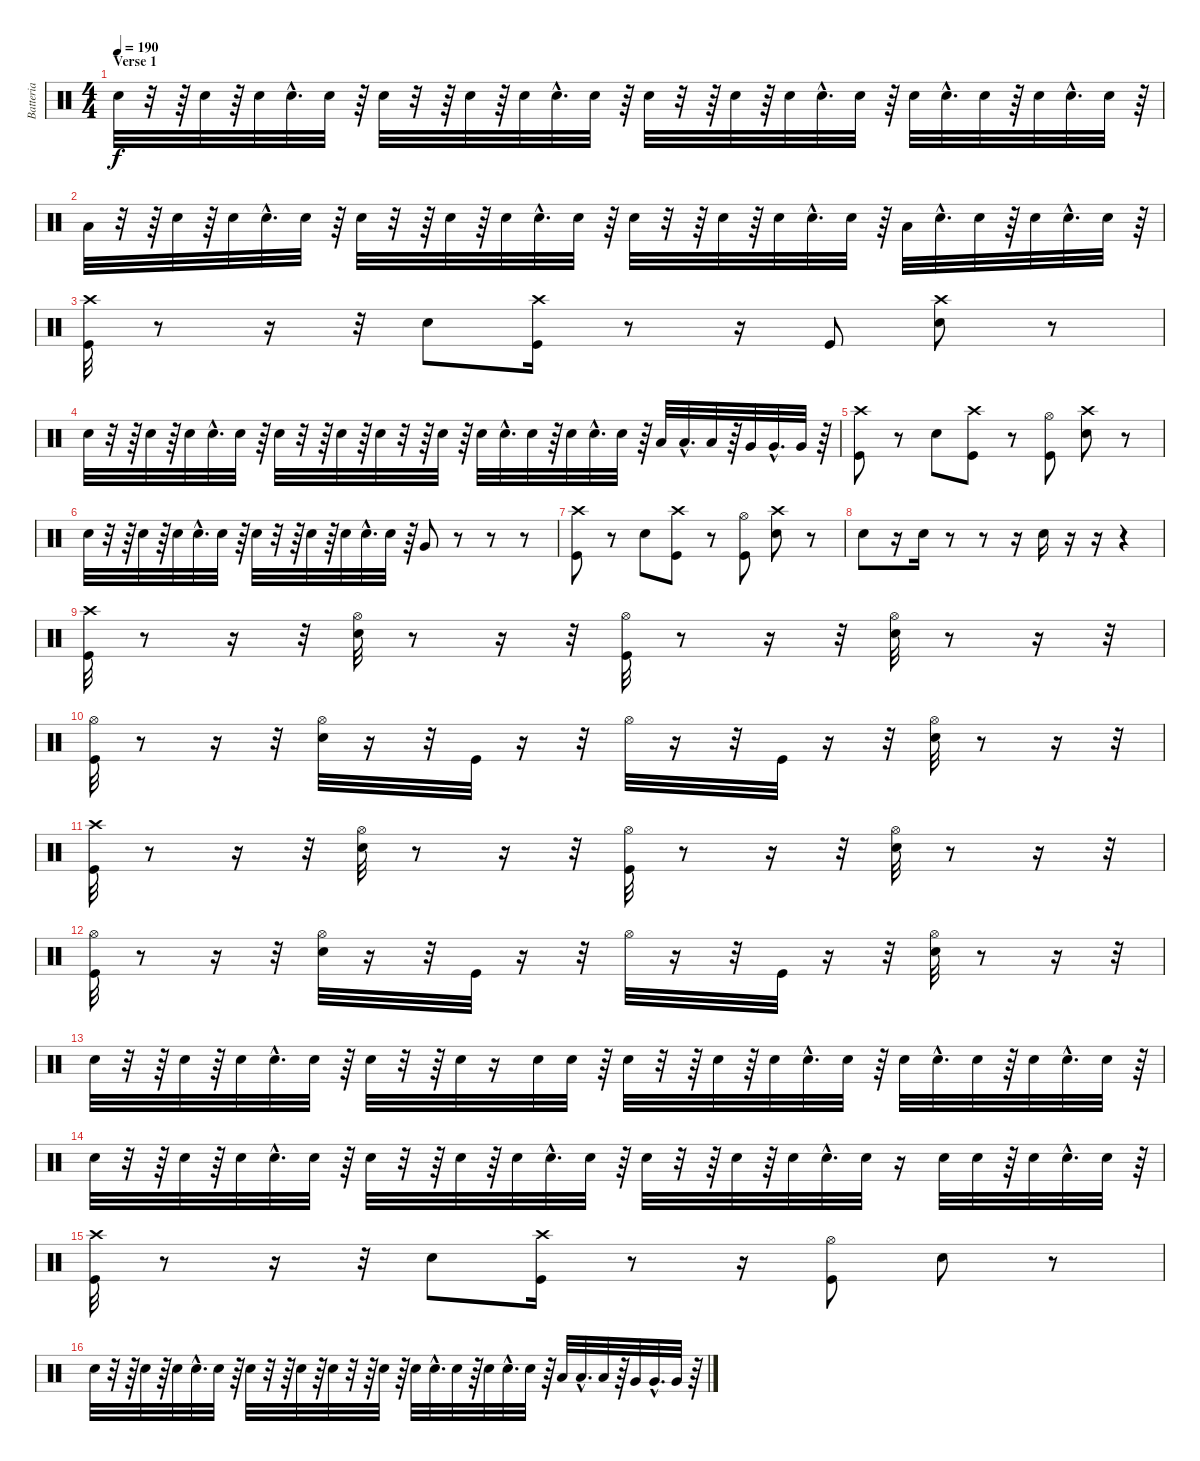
\track ("Batteria" "Batteria") {instrument percussion}
\staff {score}
\articulation defaults
\ts (4 4)
\section ("" "Verse 1")
\tempo 190
\clef neutral
\ks c "Snare (hit) 2".32{dy f}
r.32 r.64 "Snare (hit) 2".32 r.64 "Snare (hit) 2".32 "Snare (hit) 2"{hac}.32{d} "Snare (hit) 2".32 r.64 "Snare (hit) 2".32 r.32 r.64 "Snare (hit) 2".32 r.64 "Snare (hit) 2".32 "Snare (hit) 2"{hac}.32{d} "Snare (hit) 2".32 r.64 "Snare (hit) 2".32 r.32 r.64 "Snare (hit) 2".32 r.64 "Snare (hit) 2".32 "Snare (hit) 2"{hac}.32{d} "Snare (hit) 2".32 r.64 "Snare (hit) 2".32 "Snare (hit) 2"{hac}.32{d} "Snare (hit) 2".32 r.64 "Snare (hit) 2".32 "Snare (hit) 2"{hac}.32{d} "Snare (hit) 2".32 r.64 |
"Low Tom (hit)".32 r.32 r.64 "Snare (hit) 2".32 r.64 "Snare (hit) 2".32 "Snare (hit) 2"{hac}.32{d} "Snare (hit) 2".32 r.64 "Snare (hit) 2".32 r.32 r.64 "Snare (hit) 2".32 r.64 "Snare (hit) 2".32 "Snare (hit) 2"{hac}.32{d} "Snare (hit) 2".32 r.64 "Snare (hit) 2".32 r.32 r.64 "Snare (hit) 2".32 r.64 "Snare (hit) 2".32 "Snare (hit) 2"{hac}.32{d} "Snare (hit) 2".32 r.64 "Low Tom (hit)".32 "Snare (hit) 2"{hac}.32{d} "Snare (hit) 2".32 r.64 "Snare (hit) 2".32 "Snare (hit) 2"{hac}.32{d} "Snare (hit) 2".32 r.64 |
("Kick (hit)" "Crash high (hit)").32 r.8 r.16 r.32 "Snare (hit) 2".8 ("Kick (hit)" "Crash high (hit)").16 r.8 r.16 "Kick (hit)".8 ("Snare (hit) 2" "Crash high (hit)").8 r.8 |
"Snare (hit) 2".32 r.32 r.64 "Snare (hit) 2".32 r.64 "Snare (hit) 2".32 "Snare (hit) 2"{hac}.32{d} "Snare (hit) 2".32 r.64 "Snare (hit) 2".32 r.32 r.64 "Snare (hit) 2".32 r.64 "Snare (hit) 2".32 r.32 r.64 "Snare (hit) 2".32 r.64 "Snare (hit) 2".32 "Snare (hit) 2"{hac}.32{d} "Snare (hit) 2".32 r.64 "Snare (hit) 2".32 "Snare (hit) 2"{hac}.32{d} "Snare (hit) 2".32 r.64 "Low Tom (hit)".32 "Low Tom (hit)"{hac}.32{d} "Low Tom (hit)".32 r.64 "Very Low Tom (hit)".32 "Very Low Tom (hit)"{hac}.32{d} "Very Low Tom (hit)".32 r.64 |
("Kick (hit)" "Crash high (hit)").8 r.8 "Snare (hit) 2".8 ("Crash high (hit)" "Kick (hit)").8 r.8 ("Hi-Hat (open)" "Kick (hit)").8 ("Crash high (hit)" "Snare (hit) 2").8 r.8 |
"Snare (hit) 2".32 r.32 r.64 "Snare (hit) 2".32 r.64 "Snare (hit) 2".32 "Snare (hit) 2"{hac}.32{d} "Snare (hit) 2".32 r.64 "Snare (hit) 2".32 r.32 r.64 "Snare (hit) 2".32 r.64 "Snare (hit) 2".32 "Snare (hit) 2"{hac}.32{d} "Snare (hit) 2".32 r.64 "Very Low Tom (hit)".8 r.8 r.8 r.8 |
("Kick (hit)" "Crash high (hit)").8 r.8 "Snare (hit) 2".8 ("Kick (hit)" "Crash high (hit)").8 r.8 ("Kick (hit)" "Hi-Hat (open)").8 ("Crash high (hit)" "Snare (hit) 2").8 r.8 |
"Snare (hit) 2".8 r.16 "Snare (hit) 2".16 r.8 r.8 r.16 "Snare (hit) 2".16 r.16 r.16 r.4 |
("Kick (hit)" "Crash high (hit)").32 r.8 r.16 r.32 ("Snare (hit) 2" "Hi-Hat (open)").32 r.8 r.16 r.32 ("Hi-Hat (open)" "Kick (hit)").32 r.8 r.16 r.32 ("Snare (hit) 2" "Hi-Hat (open)").32 r.8 r.16 r.32 |
("Kick (hit)" "Hi-Hat (open)").32 r.8 r.16 r.32 ("Snare (hit) 2" "Hi-Hat (open)").32 r.16 r.32 "Kick (hit)".32 r.16 r.32 "Hi-Hat (open)".32 r.16 r.32 "Kick (hit)".32 r.16 r.32 ("Snare (hit) 2" "Hi-Hat (open)").32 r.8 r.16 r.32 |
("Kick (hit)" "Crash high (hit)").32 r.8 r.16 r.32 ("Hi-Hat (open)" "Snare (hit) 2").32 r.8 r.16 r.32 ("Kick (hit)" "Hi-Hat (open)").32 r.8 r.16 r.32 ("Snare (hit) 2" "Hi-Hat (open)").32 r.8 r.16 r.32 |
("Hi-Hat (open)" "Kick (hit)").32 r.8 r.16 r.32 ("Snare (hit) 2" "Hi-Hat (open)").32 r.16 r.32 "Kick (hit)".32 r.16 r.32 "Hi-Hat (open)".32 r.16 r.32 "Kick (hit)".32 r.16 r.32 ("Hi-Hat (open)" "Snare (hit) 2").32 r.8 r.16 r.32 |
"Snare (hit) 2".32 r.32 r.64 "Snare (hit) 2".32 r.64 "Snare (hit) 2".32 "Snare (hit) 2"{hac}.32{d} "Snare (hit) 2".32 r.64 "Snare (hit) 2".32 r.32 r.64 "Snare (hit) 2".32 r.16 "Snare (hit) 2".32 "Snare (hit) 2".32 r.64 "Snare (hit) 2".32 r.32 r.64 "Snare (hit) 2".32 r.64 "Snare (hit) 2".32 "Snare (hit) 2"{hac}.32{d} "Snare (hit) 2".32 r.64 "Snare (hit) 2".32 "Snare (hit) 2"{hac}.32{d} "Snare (hit) 2".32 r.64 "Snare (hit) 2".32 "Snare (hit) 2"{hac}.32{d} "Snare (hit) 2".32 r.64 |
"Snare (hit) 2".32 r.32 r.64 "Snare (hit) 2".32 r.64 "Snare (hit) 2".32 "Snare (hit) 2"{hac}.32{d} "Snare (hit) 2".32 r.64 "Snare (hit) 2".32 r.32 r.64 "Snare (hit) 2".32 r.64 "Snare (hit) 2".32 "Snare (hit) 2"{hac}.32{d} "Snare (hit) 2".32 r.64 "Snare (hit) 2".32 r.32 r.64 "Snare (hit) 2".32 r.64 "Snare (hit) 2".32 "Snare (hit) 2"{hac}.32{d} "Snare (hit) 2".32 r.16 "Snare (hit) 2".32 "Snare (hit) 2".32 r.64 "Snare (hit) 2".32 "Snare (hit) 2"{hac}.32{d} "Snare (hit) 2".32 r.64 |
("Crash high (hit)" "Kick (hit)").32 r.8 r.16 r.32 "Snare (hit) 2".8 ("Kick (hit)" "Crash high (hit)").16 r.8 r.16 ("Hi-Hat (open)" "Kick (hit)").8 "Snare (hit) 2".8 r.8 |
"Snare (hit) 2".32 r.32 r.64 "Snare (hit) 2".32 r.64 "Snare (hit) 2".32 "Snare (hit) 2"{hac}.32{d} "Snare (hit) 2".32 r.64 "Snare (hit) 2".32 r.32 r.64 "Snare (hit) 2".32 r.64 "Snare (hit) 2".32 r.32 r.64 "Snare (hit) 2".32 r.64 "Snare (hit) 2".32 "Snare (hit) 2"{hac}.32{d} "Snare (hit) 2".32 r.64 "Snare (hit) 2".32 "Snare (hit) 2"{hac}.32{d} "Snare (hit) 2".32 r.64 "Low Tom (hit)".32 "Low Tom (hit)"{hac}.32{d} "Low Tom (hit)".32 r.64 "Very Low Tom (hit)".32 "Very Low Tom (hit)"{hac}.32{d} "Very Low Tom (hit)".32 r.64
